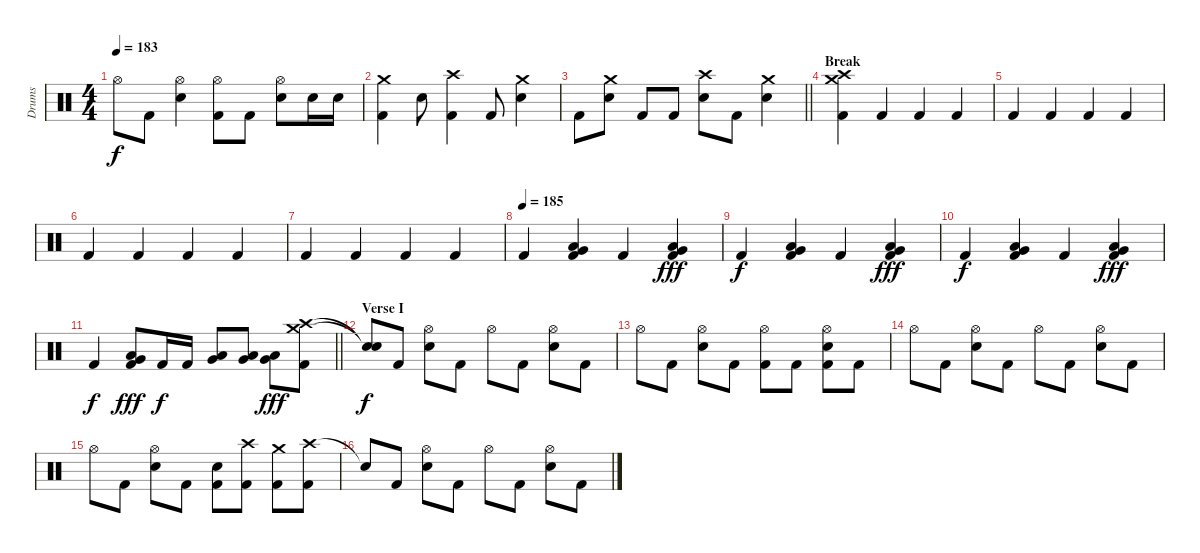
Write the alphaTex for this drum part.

\track ("Drums" "Drums") {instrument percussion}
\staff {score}
\articulation defaults
\ts (4 4)
\tempo 183
\clef neutral
\ks c "Hi-Hat (open)".8{dy f} "Kick (hit) 2".8
("Hi-Hat (open)" "Electric Snare (hit)").4 ("Hi-Hat (open)" "Kick (hit) 2").8 "Kick (hit) 2".8 ("Hi-Hat (open)" "Electric Snare (hit)").8 "Electric Snare (hit)".16 "Electric Snare (hit)".16 |
("Crash medium (hit)" "Kick (hit) 2").4 "Electric Snare (hit)".8 ("Crash high (hit)" "Kick (hit) 2").4 "Kick (hit) 2".8 ("Crash medium (hit)" "Electric Snare (hit)").4 |
\barLineRight lightlight "Kick (hit) 2".8
("Crash medium (hit)" "Electric Snare (hit)").8 "Kick (hit) 2".8 "Kick (hit) 2".8 ("Crash high (hit)" "Electric Snare (hit)").8 "Kick (hit) 2".8 ("Crash medium (hit)" "Electric Snare (hit)").4 |
\section ("" "Break")
("Crash medium (hit)" "Crash high (hit)" "Kick (hit) 2").4 "Kick (hit) 2".4 "Kick (hit) 2".4 "Kick (hit) 2".4 |
"Kick (hit) 2".4 "Kick (hit) 2".4 "Kick (hit) 2".4 "Kick (hit) 2".4 |
"Kick (hit) 2".4 "Kick (hit) 2".4 "Kick (hit) 2".4 "Kick (hit) 2".4 |
"Kick (hit) 2".4 "Kick (hit) 2".4 "Kick (hit) 2".4 "Kick (hit) 2".4 |
\tempo (185)
"Kick (hit) 2".4 ("Very Low Tom (hit)" "Low Floor Tom (hit)" "Kick (hit) 2").4 "Kick (hit) 2".4 ("Very Low Tom (hit)" "Low Floor Tom (hit)" "Kick (hit) 2").4{dy fff} |
"Kick (hit) 2".4{dy f} ("Very Low Tom (hit)" "Low Floor Tom (hit)" "Kick (hit) 2").4 "Kick (hit) 2".4 ("Very Low Tom (hit)" "Low Floor Tom (hit)" "Kick (hit) 2").4{dy fff} |
"Kick (hit) 2".4{dy f} ("Very Low Tom (hit)" "Low Floor Tom (hit)" "Kick (hit) 2").4 "Kick (hit) 2".4 ("Very Low Tom (hit)" "Low Floor Tom (hit)" "Kick (hit) 2").4{dy fff} |
\barLineRight lightlight "Kick (hit) 2".4{dy f}
("Very Low Tom (hit)" "Low Floor Tom (hit)" "Kick (hit) 2").8{dy fff} "Kick (hit) 2".16{dy f} "Kick (hit) 2".16 ("Very Low Tom (hit)" "Low Floor Tom (hit)").8 ("Very Low Tom (hit)" "Low Floor Tom (hit)").8 ("Very Low Tom (hit)" "Low Floor Tom (hit)").8{dy fff} ("Crash medium (hit)" "Crash high (hit)" "Kick (hit) 2").8 |
\section ("" "Verse I")
("Snare (hit)"{t} "Snare (hit)"{t}).8{dy f} "Kick (hit) 2".8 ("Hi-Hat (open)" "Electric Snare (hit)").8 "Kick (hit) 2".8 "Hi-Hat (open)".8 "Kick (hit) 2".8 ("Hi-Hat (open)" "Electric Snare (hit)").8 "Kick (hit) 2".8 |
"Hi-Hat (open)".8 "Kick (hit) 2".8 ("Hi-Hat (open)" "Electric Snare (hit)").8 "Kick (hit) 2".8 ("Hi-Hat (open)" "Kick (hit) 2").8 "Kick (hit) 2".8 ("Hi-Hat (open)" "Electric Snare (hit)" "Kick (hit) 2").8 "Kick (hit) 2".8 |
"Hi-Hat (open)".8 "Kick (hit) 2".8 ("Hi-Hat (open)" "Electric Snare (hit)").8 "Kick (hit) 2".8 "Hi-Hat (open)".8 "Kick (hit) 2".8 ("Hi-Hat (open)" "Electric Snare (hit)").8 "Kick (hit) 2".8 |
"Hi-Hat (open)".8 "Kick (hit) 2".8 ("Hi-Hat (open)" "Electric Snare (hit)").8 "Kick (hit) 2".8 ("Electric Snare (hit)" "Kick (hit) 2").8 ("Crash high (hit)" "Kick (hit) 2").8 ("Crash medium (hit)" "Kick (hit) 2").8 ("Crash high (hit)" "Kick (hit) 2").8 |
"Snare (hit)"{t}.8 "Kick (hit) 2".8 ("Hi-Hat (open)" "Electric Snare (hit)").8 "Kick (hit) 2".8 "Hi-Hat (open)".8 "Kick (hit) 2".8 ("Hi-Hat (open)" "Electric Snare (hit)").8 "Kick (hit) 2".8
